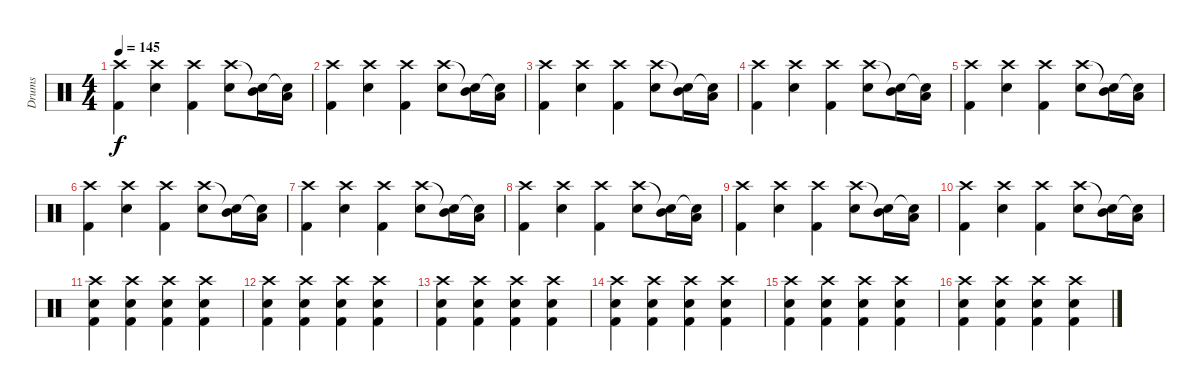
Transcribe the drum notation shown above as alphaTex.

\track ("Drums" "Drums") {instrument percussion}
\staff {score}
\articulation defaults
\ts (4 4)
\tempo 145
\clef neutral
\ks c
("Crash high (hit)" "Kick (hit) 2").4{dy f} ("Crash high (hit)" "Snare (hit) 2").4 ("Crash high (hit)" "Kick (hit) 2").4 ("Crash high (hit)" "Snare (hit) 2").8 ("Snare (hit)"{t} "Mid Tom (hit)").16 ("Snare (hit)"{t} "Low Tom (hit)").16 |
("Crash high (hit)" "Kick (hit) 2").4 ("Crash high (hit)" "Snare (hit) 2").4 ("Crash high (hit)" "Kick (hit) 2").4 ("Crash high (hit)" "Snare (hit) 2").8 ("Snare (hit)"{t} "Mid Tom (hit)").16 ("Snare (hit)"{t} "Low Tom (hit)").16 |
("Crash high (hit)" "Kick (hit) 2").4 ("Crash high (hit)" "Snare (hit) 2").4 ("Crash high (hit)" "Kick (hit) 2").4 ("Crash high (hit)" "Snare (hit) 2").8 ("Snare (hit)"{t} "Mid Tom (hit)").16 ("Snare (hit)"{t} "Low Tom (hit)").16 |
("Crash high (hit)" "Kick (hit) 2").4 ("Crash high (hit)" "Snare (hit) 2").4 ("Crash high (hit)" "Kick (hit) 2").4 ("Crash high (hit)" "Snare (hit) 2").8 ("Snare (hit)"{t} "Mid Tom (hit)").16 ("Snare (hit)"{t} "Low Tom (hit)").16 |
("Crash high (hit)" "Kick (hit) 2").4 ("Crash high (hit)" "Snare (hit) 2").4 ("Crash high (hit)" "Kick (hit) 2").4 ("Crash high (hit)" "Snare (hit) 2").8 ("Snare (hit)"{t} "Mid Tom (hit)").16 ("Snare (hit)"{t} "Low Tom (hit)").16 |
("Crash high (hit)" "Kick (hit) 2").4 ("Crash high (hit)" "Snare (hit) 2").4 ("Crash high (hit)" "Kick (hit) 2").4 ("Crash high (hit)" "Snare (hit) 2").8 ("Snare (hit)"{t} "Mid Tom (hit)").16 ("Snare (hit)"{t} "Low Tom (hit)").16 |
("Crash high (hit)" "Kick (hit) 2").4 ("Crash high (hit)" "Snare (hit) 2").4 ("Crash high (hit)" "Kick (hit) 2").4 ("Crash high (hit)" "Snare (hit) 2").8 ("Snare (hit)"{t} "Mid Tom (hit)").16 ("Snare (hit)"{t} "Low Tom (hit)").16 |
("Crash high (hit)" "Kick (hit) 2").4 ("Crash high (hit)" "Snare (hit) 2").4 ("Crash high (hit)" "Kick (hit) 2").4 ("Crash high (hit)" "Snare (hit) 2").8 ("Snare (hit)"{t} "Mid Tom (hit)").16 ("Snare (hit)"{t} "Low Tom (hit)").16 |
("Crash high (hit)" "Kick (hit) 2").4 ("Crash high (hit)" "Snare (hit) 2").4 ("Crash high (hit)" "Kick (hit) 2").4 ("Crash high (hit)" "Snare (hit) 2").8 ("Snare (hit)"{t} "Mid Tom (hit)").16 ("Snare (hit)"{t} "Low Tom (hit)").16 |
("Crash high (hit)" "Kick (hit) 2").4 ("Crash high (hit)" "Snare (hit) 2").4 ("Crash high (hit)" "Kick (hit) 2").4 ("Crash high (hit)" "Snare (hit) 2").8 ("Snare (hit)"{t} "Mid Tom (hit)").16 ("Snare (hit)"{t} "Low Tom (hit)").16 |
("Crash high (hit)" "Snare (hit) 2" "Kick (hit) 2").4 ("Crash high (hit)" "Snare (hit) 2" "Kick (hit) 2").4 ("Crash high (hit)" "Snare (hit) 2" "Kick (hit) 2").4 ("Crash high (hit)" "Snare (hit) 2" "Kick (hit) 2").4 |
("Crash high (hit)" "Snare (hit) 2" "Kick (hit) 2").4 ("Crash high (hit)" "Snare (hit) 2" "Kick (hit) 2").4 ("Crash high (hit)" "Snare (hit) 2" "Kick (hit) 2").4 ("Crash high (hit)" "Snare (hit) 2" "Kick (hit) 2").4 |
("Crash high (hit)" "Snare (hit) 2" "Kick (hit) 2").4 ("Crash high (hit)" "Snare (hit) 2" "Kick (hit) 2").4 ("Crash high (hit)" "Snare (hit) 2" "Kick (hit) 2").4 ("Crash high (hit)" "Snare (hit) 2" "Kick (hit) 2").4 |
("Crash high (hit)" "Snare (hit) 2" "Kick (hit) 2").4 ("Crash high (hit)" "Snare (hit) 2" "Kick (hit) 2").4 ("Crash high (hit)" "Snare (hit) 2" "Kick (hit) 2").4 ("Crash high (hit)" "Snare (hit) 2" "Kick (hit) 2").4 |
("Crash high (hit)" "Snare (hit) 2" "Kick (hit) 2").4 ("Crash high (hit)" "Snare (hit) 2" "Kick (hit) 2").4 ("Crash high (hit)" "Snare (hit) 2" "Kick (hit) 2").4 ("Crash high (hit)" "Snare (hit) 2" "Kick (hit) 2").4 |
("Crash high (hit)" "Snare (hit) 2" "Kick (hit) 2").4 ("Crash high (hit)" "Snare (hit) 2" "Kick (hit) 2").4 ("Crash high (hit)" "Snare (hit) 2" "Kick (hit) 2").4 ("Crash high (hit)" "Snare (hit) 2" "Kick (hit) 2").4
